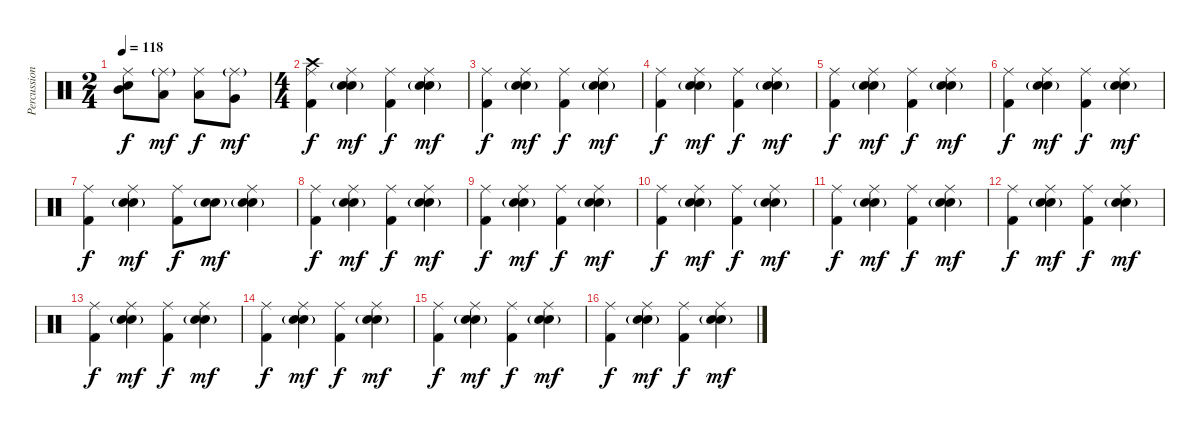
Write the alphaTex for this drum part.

\track ("Percussion" "Percussion") {instrument percussion}
\staff {score}
\articulation defaults
\ts (2 4)
\tempo 118
\clef neutral
\ks c
("Ride (middle)" "Mid Tom (hit)" "Electric Snare (hit)").8{dy f} ("Ride (middle)"{g} "Low Tom (hit)").8{dy mf} ("Ride (middle)" "Low Tom (hit)").8{dy f} ("Ride (middle)"{g} "Very Low Tom (hit)").8{dy mf} |
\ts (4 4)
("Crash high (hit)" "Ride (middle)" "Kick (hit) 2").4{dy f} ("Ride (middle)" "Electric Snare (hit)" "Snare (hit) 2"{g}).4{dy mf} ("Ride (middle)" "Kick (hit) 2").4{dy f} ("Ride (middle)" "Electric Snare (hit)" "Snare (hit) 2"{g}).4{dy mf} |
("Ride (middle)" "Kick (hit) 2").4{dy f} ("Ride (middle)" "Electric Snare (hit)" "Snare (hit) 2"{g}).4{dy mf} ("Ride (middle)" "Kick (hit) 2").4{dy f} ("Ride (middle)" "Electric Snare (hit)" "Snare (hit) 2"{g}).4{dy mf} |
("Ride (middle)" "Kick (hit) 2").4{dy f} ("Ride (middle)" "Electric Snare (hit)" "Snare (hit) 2"{g}).4{dy mf} ("Ride (middle)" "Kick (hit) 2").4{dy f} ("Ride (middle)" "Electric Snare (hit)" "Snare (hit) 2"{g}).4{dy mf} |
("Ride (middle)" "Kick (hit) 2").4{dy f} ("Ride (middle)" "Electric Snare (hit)" "Snare (hit) 2"{g}).4{dy mf} ("Ride (middle)" "Kick (hit) 2").4{dy f} ("Ride (middle)" "Electric Snare (hit)" "Snare (hit) 2"{g}).4{dy mf} |
("Ride (middle)" "Kick (hit) 2").4{dy f} ("Ride (middle)" "Electric Snare (hit)" "Snare (hit) 2"{g}).4{dy mf} ("Ride (middle)" "Kick (hit) 2").4{dy f} ("Ride (middle)" "Electric Snare (hit)" "Snare (hit) 2"{g}).4{dy mf} |
("Ride (middle)" "Kick (hit) 2").4{dy f} ("Ride (middle)" "Electric Snare (hit)" "Snare (hit) 2"{g}).4{dy mf} ("Ride (middle)" "Kick (hit) 2").8{dy f} ("Electric Snare (hit)" "Snare (hit) 2"{g}).8{dy mf} ("Ride (middle)" "Electric Snare (hit)" "Snare (hit) 2"{g}).4 |
("Ride (middle)" "Kick (hit) 2").4{dy f} ("Ride (middle)" "Electric Snare (hit)" "Snare (hit) 2"{g}).4{dy mf} ("Ride (middle)" "Kick (hit) 2").4{dy f} ("Ride (middle)" "Electric Snare (hit)" "Snare (hit) 2"{g}).4{dy mf} |
("Ride (middle)" "Kick (hit) 2").4{dy f} ("Ride (middle)" "Electric Snare (hit)" "Snare (hit) 2"{g}).4{dy mf} ("Ride (middle)" "Kick (hit) 2").4{dy f} ("Ride (middle)" "Electric Snare (hit)" "Snare (hit) 2"{g}).4{dy mf} |
("Ride (middle)" "Kick (hit) 2").4{dy f} ("Ride (middle)" "Electric Snare (hit)" "Snare (hit) 2"{g}).4{dy mf} ("Ride (middle)" "Kick (hit) 2").4{dy f} ("Ride (middle)" "Electric Snare (hit)" "Snare (hit) 2"{g}).4{dy mf} |
("Ride (middle)" "Kick (hit) 2").4{dy f} ("Ride (middle)" "Electric Snare (hit)" "Snare (hit) 2"{g}).4{dy mf} ("Ride (middle)" "Kick (hit) 2").4{dy f} ("Ride (middle)" "Electric Snare (hit)" "Snare (hit) 2"{g}).4{dy mf} |
("Ride (middle)" "Kick (hit) 2").4{dy f} ("Ride (middle)" "Electric Snare (hit)" "Snare (hit) 2"{g}).4{dy mf} ("Ride (middle)" "Kick (hit) 2").4{dy f} ("Ride (middle)" "Electric Snare (hit)" "Snare (hit) 2"{g}).4{dy mf} |
("Ride (middle)" "Kick (hit) 2").4{dy f} ("Ride (middle)" "Electric Snare (hit)" "Snare (hit) 2"{g}).4{dy mf} ("Ride (middle)" "Kick (hit) 2").4{dy f} ("Ride (middle)" "Electric Snare (hit)" "Snare (hit) 2"{g}).4{dy mf} |
("Ride (middle)" "Kick (hit) 2").4{dy f} ("Ride (middle)" "Electric Snare (hit)" "Snare (hit) 2"{g}).4{dy mf} ("Ride (middle)" "Kick (hit) 2").4{dy f} ("Ride (middle)" "Electric Snare (hit)" "Snare (hit) 2"{g}).4{dy mf} |
("Ride (middle)" "Kick (hit) 2").4{dy f} ("Ride (middle)" "Electric Snare (hit)" "Snare (hit) 2"{g}).4{dy mf} ("Ride (middle)" "Kick (hit) 2").4{dy f} ("Ride (middle)" "Electric Snare (hit)" "Snare (hit) 2"{g}).4{dy mf} |
("Ride (middle)" "Kick (hit) 2").4{dy f} ("Ride (middle)" "Electric Snare (hit)" "Snare (hit) 2"{g}).4{dy mf} ("Ride (middle)" "Kick (hit) 2").4{dy f} ("Ride (middle)" "Electric Snare (hit)" "Snare (hit) 2"{g}).4{dy mf}
